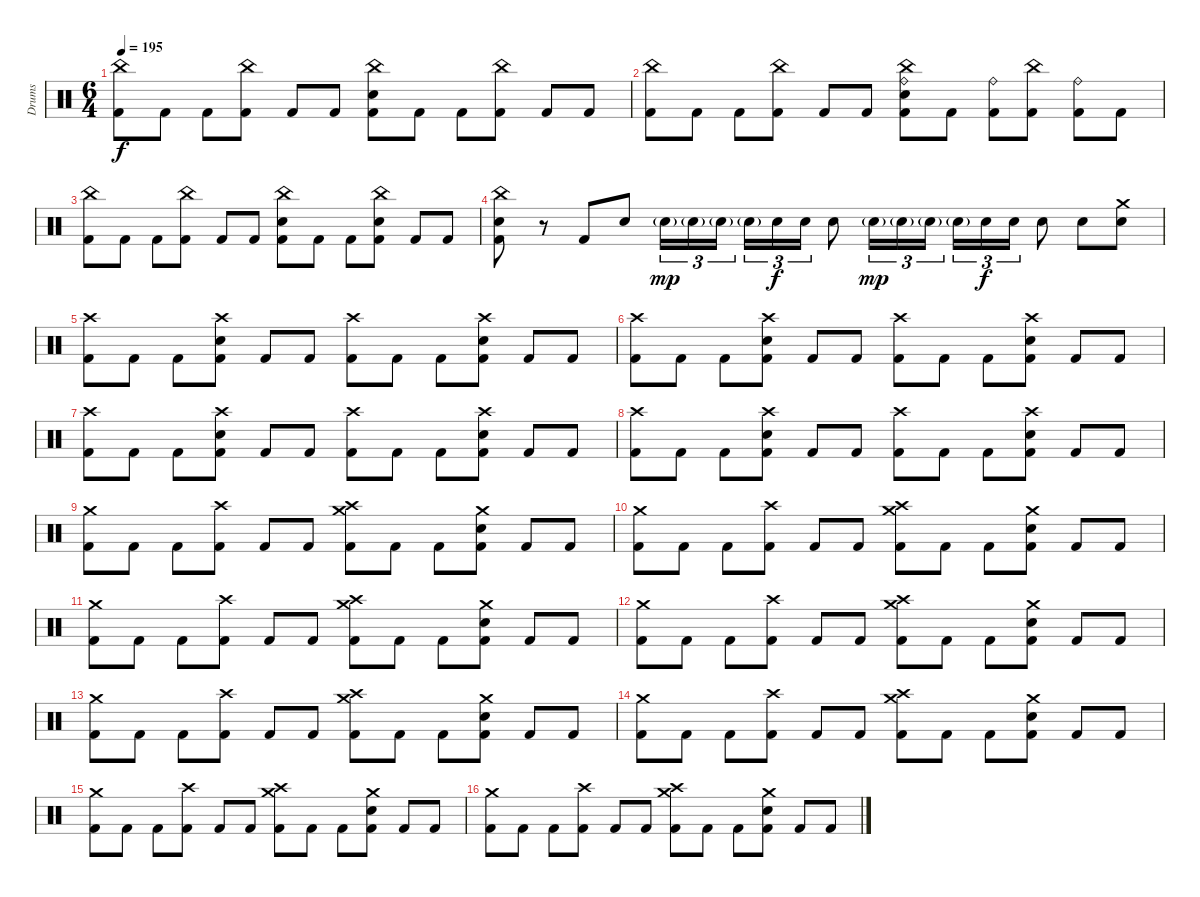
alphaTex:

\track ("Drums" "Drums") {instrument percussion}
\staff {score}
\articulation defaults
\ts (6 4)
\tempo 195
\clef neutral
\ks c
("China (hit)" "Kick (hit) 2").8{dy f} "Kick (hit) 2".8 "Kick (hit) 2".8 ("China (hit)" "Kick (hit) 2").8 "Kick (hit) 2".8 "Kick (hit) 2".8 ("China (hit)" "Electric Snare (hit)" "Kick (hit) 2").8 "Kick (hit) 2".8 "Kick (hit) 2".8 ("China (hit)" "Kick (hit) 2").8 "Kick (hit) 2".8 "Kick (hit) 2".8 |
("China (hit)" "Kick (hit) 2").8 "Kick (hit) 2".8 "Kick (hit) 2".8 ("China (hit)" "Kick (hit) 2").8 "Kick (hit) 2".8 "Kick (hit) 2".8 ("China (hit)" "Ride (bell)" "Electric Snare (hit)" "Kick (hit) 2").8 "Kick (hit) 2".8 ("Ride (bell)" "Kick (hit) 2").8 ("China (hit)" "Kick (hit) 2").8 ("Ride (bell)" "Kick (hit) 2").8 "Kick (hit) 2".8 |
("China (hit)" "Kick (hit) 2").8 "Kick (hit) 2".8 "Kick (hit) 2".8 ("China (hit)" "Kick (hit) 2").8 "Kick (hit) 2".8 "Kick (hit) 2".8 ("China (hit)" "Electric Snare (hit)" "Kick (hit) 2").8 "Kick (hit) 2".8 "Kick (hit) 2".8 ("China (hit)" "Electric Snare (hit)" "Kick (hit) 2").8 "Kick (hit) 2".8 "Kick (hit) 2".8 |
("China (hit)" "Electric Snare (hit)" "Kick (hit) 2").8 r.8 "Kick (hit) 2".8 "Electric Snare (hit)".8 "Electric Snare (hit)"{g}.16{tu (3 2) dy mp} "Electric Snare (hit)"{g}.16{tu (3 2)} "Electric Snare (hit)"{g}.16{tu (3 2) beam splitsecondary} "Electric Snare (hit)"{g}.16{tu (3 2)} "Electric Snare (hit)".16{tu (3 2) dy f} "Electric Snare (hit)".16{tu (3 2)} "Electric Snare (hit)".8 "Electric Snare (hit)"{g}.16{tu (3 2) dy mp} "Electric Snare (hit)"{g}.16{tu (3 2)} "Electric Snare (hit)"{g}.16{tu (3 2) beam splitsecondary} "Electric Snare (hit)"{g}.16{tu (3 2)} "Electric Snare (hit)".16{tu (3 2) dy f} "Electric Snare (hit)".16{tu (3 2)} "Electric Snare (hit)".8 "Electric Snare (hit)".8 ("Crash medium (hit)" "Electric Snare (hit)").8 |
("Crash high (hit)" "Kick (hit) 2").8 "Kick (hit) 2".8 "Kick (hit) 2".8 ("Crash high (hit)" "Electric Snare (hit)" "Kick (hit) 2").8 "Kick (hit) 2".8 "Kick (hit) 2".8 ("Crash high (hit)" "Kick (hit) 2").8 "Kick (hit) 2".8 "Kick (hit) 2".8 ("Crash high (hit)" "Electric Snare (hit)" "Kick (hit) 2").8 "Kick (hit) 2".8 "Kick (hit) 2".8 |
("Crash high (hit)" "Kick (hit) 2").8 "Kick (hit) 2".8 "Kick (hit) 2".8 ("Crash high (hit)" "Electric Snare (hit)" "Kick (hit) 2").8 "Kick (hit) 2".8 "Kick (hit) 2".8 ("Crash high (hit)" "Kick (hit) 2").8 "Kick (hit) 2".8 "Kick (hit) 2".8 ("Crash high (hit)" "Electric Snare (hit)" "Kick (hit) 2").8 "Kick (hit) 2".8 "Kick (hit) 2".8 |
("Crash high (hit)" "Kick (hit) 2").8 "Kick (hit) 2".8 "Kick (hit) 2".8 ("Crash high (hit)" "Electric Snare (hit)" "Kick (hit) 2").8 "Kick (hit) 2".8 "Kick (hit) 2".8 ("Crash high (hit)" "Kick (hit) 2").8 "Kick (hit) 2".8 "Kick (hit) 2".8 ("Crash high (hit)" "Electric Snare (hit)" "Kick (hit) 2").8 "Kick (hit) 2".8 "Kick (hit) 2".8 |
("Crash high (hit)" "Kick (hit) 2").8 "Kick (hit) 2".8 "Kick (hit) 2".8 ("Crash high (hit)" "Electric Snare (hit)" "Kick (hit) 2").8 "Kick (hit) 2".8 "Kick (hit) 2".8 ("Crash high (hit)" "Kick (hit) 2").8 "Kick (hit) 2".8 "Kick (hit) 2".8 ("Crash high (hit)" "Electric Snare (hit)" "Kick (hit) 2").8 "Kick (hit) 2".8 "Kick (hit) 2".8 |
("Crash medium (hit)" "Kick (hit) 2").8 "Kick (hit) 2".8 "Kick (hit) 2".8 ("Crash high (hit)" "Kick (hit) 2").8 "Kick (hit) 2".8 "Kick (hit) 2".8 ("Crash medium (hit)" "Crash high (hit)" "Kick (hit) 2").8 "Kick (hit) 2".8 "Kick (hit) 2".8 ("Crash medium (hit)" "Electric Snare (hit)" "Kick (hit) 2").8 "Kick (hit) 2".8 "Kick (hit) 2".8 |
("Crash medium (hit)" "Kick (hit) 2").8 "Kick (hit) 2".8 "Kick (hit) 2".8 ("Crash high (hit)" "Kick (hit) 2").8 "Kick (hit) 2".8 "Kick (hit) 2".8 ("Crash medium (hit)" "Crash high (hit)" "Kick (hit) 2").8 "Kick (hit) 2".8 "Kick (hit) 2".8 ("Crash medium (hit)" "Electric Snare (hit)" "Kick (hit) 2").8 "Kick (hit) 2".8 "Kick (hit) 2".8 |
("Crash medium (hit)" "Kick (hit) 2").8 "Kick (hit) 2".8 "Kick (hit) 2".8 ("Crash high (hit)" "Kick (hit) 2").8 "Kick (hit) 2".8 "Kick (hit) 2".8 ("Crash medium (hit)" "Crash high (hit)" "Kick (hit) 2").8 "Kick (hit) 2".8 "Kick (hit) 2".8 ("Crash medium (hit)" "Electric Snare (hit)" "Kick (hit) 2").8 "Kick (hit) 2".8 "Kick (hit) 2".8 |
("Crash medium (hit)" "Kick (hit) 2").8 "Kick (hit) 2".8 "Kick (hit) 2".8 ("Crash high (hit)" "Kick (hit) 2").8 "Kick (hit) 2".8 "Kick (hit) 2".8 ("Crash medium (hit)" "Crash high (hit)" "Kick (hit) 2").8 "Kick (hit) 2".8 "Kick (hit) 2".8 ("Crash medium (hit)" "Electric Snare (hit)" "Kick (hit) 2").8 "Kick (hit) 2".8 "Kick (hit) 2".8 |
("Crash medium (hit)" "Kick (hit) 2").8 "Kick (hit) 2".8 "Kick (hit) 2".8 ("Crash high (hit)" "Kick (hit) 2").8 "Kick (hit) 2".8 "Kick (hit) 2".8 ("Crash medium (hit)" "Crash high (hit)" "Kick (hit) 2").8 "Kick (hit) 2".8 "Kick (hit) 2".8 ("Crash medium (hit)" "Electric Snare (hit)" "Kick (hit) 2").8 "Kick (hit) 2".8 "Kick (hit) 2".8 |
("Crash medium (hit)" "Kick (hit) 2").8 "Kick (hit) 2".8 "Kick (hit) 2".8 ("Crash high (hit)" "Kick (hit) 2").8 "Kick (hit) 2".8 "Kick (hit) 2".8 ("Crash medium (hit)" "Crash high (hit)" "Kick (hit) 2").8 "Kick (hit) 2".8 "Kick (hit) 2".8 ("Crash medium (hit)" "Electric Snare (hit)" "Kick (hit) 2").8 "Kick (hit) 2".8 "Kick (hit) 2".8 |
("Crash medium (hit)" "Kick (hit) 2").8 "Kick (hit) 2".8 "Kick (hit) 2".8 ("Crash high (hit)" "Kick (hit) 2").8 "Kick (hit) 2".8 "Kick (hit) 2".8 ("Crash medium (hit)" "Crash high (hit)" "Kick (hit) 2").8 "Kick (hit) 2".8 "Kick (hit) 2".8 ("Crash medium (hit)" "Electric Snare (hit)" "Kick (hit) 2").8 "Kick (hit) 2".8 "Kick (hit) 2".8 |
("Crash medium (hit)" "Kick (hit) 2").8 "Kick (hit) 2".8 "Kick (hit) 2".8 ("Crash high (hit)" "Kick (hit) 2").8 "Kick (hit) 2".8 "Kick (hit) 2".8 ("Crash medium (hit)" "Crash high (hit)" "Kick (hit) 2").8 "Kick (hit) 2".8 "Kick (hit) 2".8 ("Crash medium (hit)" "Electric Snare (hit)" "Kick (hit) 2").8 "Kick (hit) 2".8 "Kick (hit) 2".8
